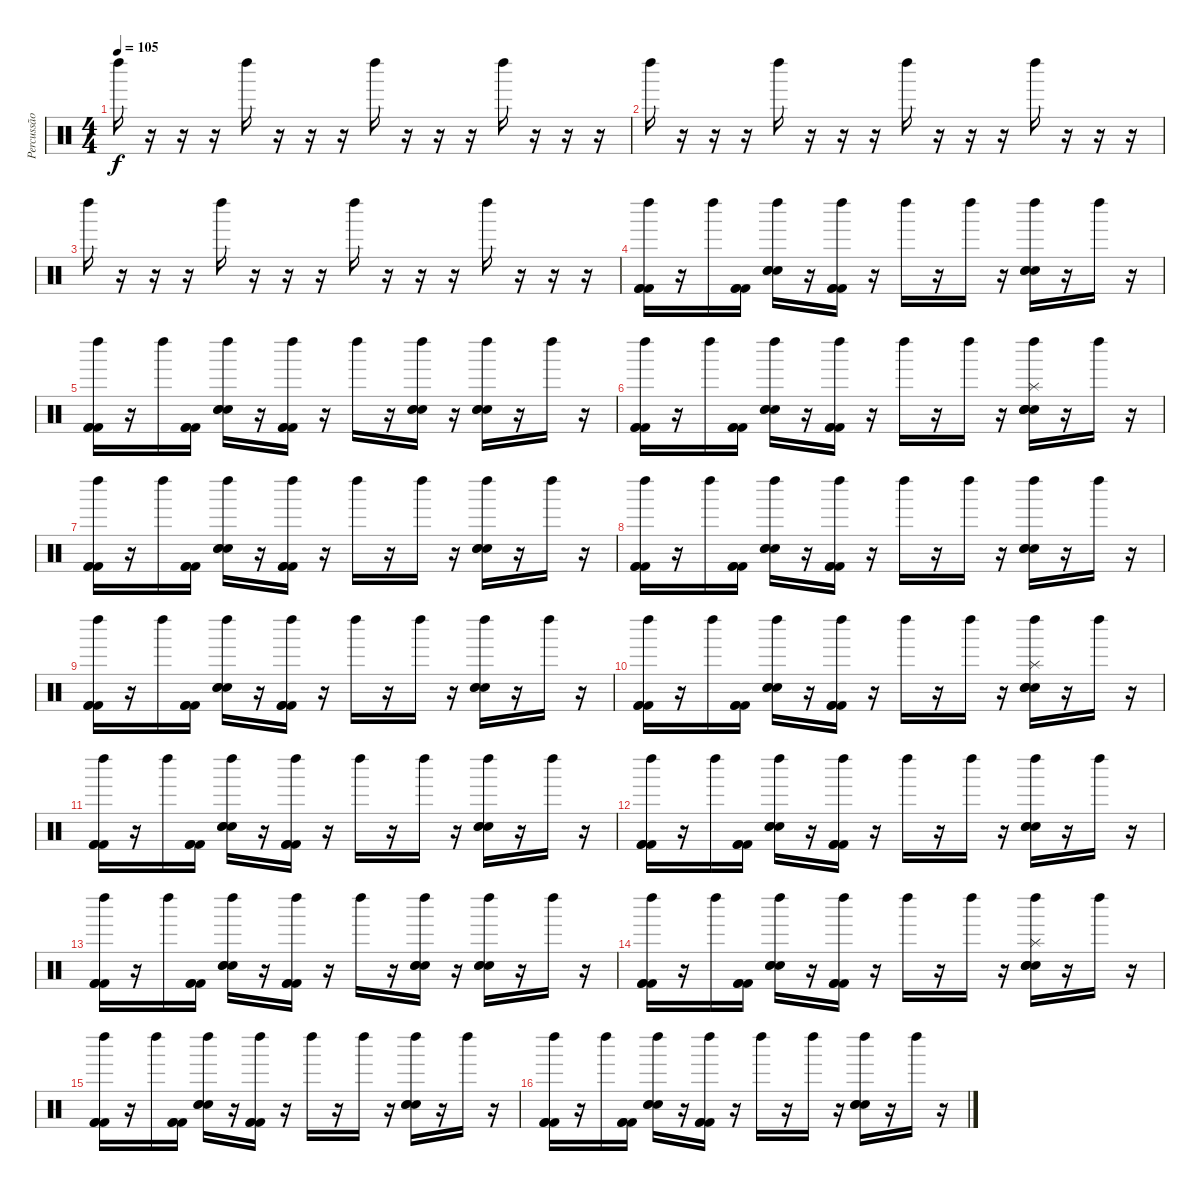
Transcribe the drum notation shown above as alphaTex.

\track ("Percussão" "Percussão") {instrument percussion}
\staff {score}
\articulation defaults
\ts (4 4)
\tempo 105
\clef neutral
\ks c "Left Maraca (hit)".16{dy f}
r.16 r.16 r.16 "Left Maraca (hit)".16 r.16 r.16 r.16 "Left Maraca (hit)".16 r.16 r.16 r.16 "Left Maraca (hit)".16 r.16 r.16 r.16 |
"Left Maraca (hit)".16 r.16 r.16 r.16 "Left Maraca (hit)".16 r.16 r.16 r.16 "Left Maraca (hit)".16 r.16 r.16 r.16 "Left Maraca (hit)".16 r.16 r.16 r.16 |
"Left Maraca (hit)".16 r.16 r.16 r.16 "Left Maraca (hit)".16 r.16 r.16 r.16 "Left Maraca (hit)".16 r.16 r.16 r.16 "Left Maraca (hit)".16 r.16 r.16 r.16 |
("Left Maraca (hit)" "Kick (hit) 2" "Kick (hit) 2" "Kick (hit) 2").16 r.16 "Left Maraca (hit)".16 ("Kick (hit) 2" "Kick (hit) 2" "Kick (hit) 2").16 ("Left Maraca (hit)" "Hand Clap (hit)" "Hand Clap (hit)" "Hand Clap (hit)").16 r.16 ("Left Maraca (hit)" "Kick (hit) 2" "Kick (hit) 2" "Kick (hit) 2").16 r.16 "Left Maraca (hit)".16 r.16 "Left Maraca (hit)".16 r.16 ("Left Maraca (hit)" "Hand Clap (hit)" "Hand Clap (hit)" "Hand Clap (hit)").16 r.16 "Left Maraca (hit)".16 r.16 |
("Left Maraca (hit)" "Kick (hit) 2" "Kick (hit) 2" "Kick (hit) 2").16 r.16 "Left Maraca (hit)".16 ("Kick (hit) 2" "Kick (hit) 2" "Kick (hit) 2").16 ("Left Maraca (hit)" "Hand Clap (hit)" "Hand Clap (hit)" "Hand Clap (hit)").16 r.16 ("Left Maraca (hit)" "Kick (hit) 2" "Kick (hit) 2" "Kick (hit) 2").16 r.16 "Left Maraca (hit)".16 r.16 ("Left Maraca (hit)" "Hand Clap (hit)" "Hand Clap (hit)" "Hand Clap (hit)").16 r.16 ("Left Maraca (hit)" "Hand Clap (hit)" "Hand Clap (hit)" "Hand Clap (hit)").16 r.16 "Left Maraca (hit)".16 r.16 |
("Left Maraca (hit)" "Kick (hit) 2" "Kick (hit) 2" "Kick (hit) 2").16 r.16 "Left Maraca (hit)".16 ("Kick (hit) 2" "Kick (hit) 2" "Kick (hit) 2").16 ("Left Maraca (hit)" "Hand Clap (hit)" "Hand Clap (hit)" "Hand Clap (hit)").16 r.16 ("Left Maraca (hit)" "Kick (hit) 2" "Kick (hit) 2" "Kick (hit) 2").16 r.16 "Left Maraca (hit)".16 r.16 "Left Maraca (hit)".16 r.16 ("Left Maraca (hit)" "Splash (hit)" "Hand Clap (hit)" "Hand Clap (hit)" "Hand Clap (hit)" "Snare (hit) 2").16 r.16 "Left Maraca (hit)".16 r.16 |
("Left Maraca (hit)" "Kick (hit) 2" "Kick (hit) 2" "Kick (hit) 2").16 r.16 "Left Maraca (hit)".16 ("Kick (hit) 2" "Kick (hit) 2" "Kick (hit) 2").16 ("Left Maraca (hit)" "Hand Clap (hit)" "Hand Clap (hit)" "Hand Clap (hit)").16 r.16 ("Left Maraca (hit)" "Kick (hit) 2" "Kick (hit) 2" "Kick (hit) 2").16 r.16 "Left Maraca (hit)".16 r.16 "Left Maraca (hit)".16 r.16 ("Left Maraca (hit)" "Hand Clap (hit)" "Hand Clap (hit)" "Hand Clap (hit)").16 r.16 "Left Maraca (hit)".16 r.16 |
("Left Maraca (hit)" "Kick (hit) 2" "Kick (hit) 2" "Kick (hit) 2").16 r.16 "Left Maraca (hit)".16 ("Kick (hit) 2" "Kick (hit) 2" "Kick (hit) 2").16 ("Left Maraca (hit)" "Hand Clap (hit)" "Hand Clap (hit)" "Hand Clap (hit)").16 r.16 ("Left Maraca (hit)" "Kick (hit) 2" "Kick (hit) 2" "Kick (hit) 2").16 r.16 "Left Maraca (hit)".16 r.16 "Left Maraca (hit)".16 r.16 ("Left Maraca (hit)" "Hand Clap (hit)" "Hand Clap (hit)" "Hand Clap (hit)").16 r.16 "Left Maraca (hit)".16 r.16 |
("Left Maraca (hit)" "Kick (hit) 2" "Kick (hit) 2" "Kick (hit) 2").16 r.16 "Left Maraca (hit)".16 ("Kick (hit) 2" "Kick (hit) 2" "Kick (hit) 2").16 ("Left Maraca (hit)" "Hand Clap (hit)" "Hand Clap (hit)" "Hand Clap (hit)").16 r.16 ("Left Maraca (hit)" "Kick (hit) 2" "Kick (hit) 2" "Kick (hit) 2").16 r.16 "Left Maraca (hit)".16 r.16 "Left Maraca (hit)".16 r.16 ("Left Maraca (hit)" "Hand Clap (hit)" "Hand Clap (hit)" "Hand Clap (hit)").16 r.16 "Left Maraca (hit)".16 r.16 |
("Left Maraca (hit)" "Kick (hit) 2" "Kick (hit) 2" "Kick (hit) 2").16 r.16 "Left Maraca (hit)".16 ("Kick (hit) 2" "Kick (hit) 2" "Kick (hit) 2").16 ("Left Maraca (hit)" "Hand Clap (hit)" "Hand Clap (hit)" "Hand Clap (hit)").16 r.16 ("Left Maraca (hit)" "Kick (hit) 2" "Kick (hit) 2" "Kick (hit) 2").16 r.16 "Left Maraca (hit)".16 r.16 "Left Maraca (hit)".16 r.16 ("Left Maraca (hit)" "Splash (hit)" "Hand Clap (hit)" "Hand Clap (hit)" "Hand Clap (hit)" "Snare (hit) 2").16 r.16 "Left Maraca (hit)".16 r.16 |
("Left Maraca (hit)" "Kick (hit) 2" "Kick (hit) 2" "Kick (hit) 2").16 r.16 "Left Maraca (hit)".16 ("Kick (hit) 2" "Kick (hit) 2" "Kick (hit) 2").16 ("Left Maraca (hit)" "Hand Clap (hit)" "Hand Clap (hit)" "Hand Clap (hit)").16 r.16 ("Left Maraca (hit)" "Kick (hit) 2" "Kick (hit) 2" "Kick (hit) 2").16 r.16 "Left Maraca (hit)".16 r.16 "Left Maraca (hit)".16 r.16 ("Left Maraca (hit)" "Hand Clap (hit)" "Hand Clap (hit)" "Hand Clap (hit)").16 r.16 "Left Maraca (hit)".16 r.16 |
("Left Maraca (hit)" "Kick (hit) 2" "Kick (hit) 2" "Kick (hit) 2").16 r.16 "Left Maraca (hit)".16 ("Kick (hit) 2" "Kick (hit) 2" "Kick (hit) 2").16 ("Left Maraca (hit)" "Hand Clap (hit)" "Hand Clap (hit)" "Hand Clap (hit)").16 r.16 ("Left Maraca (hit)" "Kick (hit) 2" "Kick (hit) 2" "Kick (hit) 2").16 r.16 "Left Maraca (hit)".16 r.16 "Left Maraca (hit)".16 r.16 ("Left Maraca (hit)" "Hand Clap (hit)" "Hand Clap (hit)" "Hand Clap (hit)").16 r.16 "Left Maraca (hit)".16 r.16 |
("Left Maraca (hit)" "Kick (hit) 2" "Kick (hit) 2" "Kick (hit) 2").16 r.16 "Left Maraca (hit)".16 ("Kick (hit) 2" "Kick (hit) 2" "Kick (hit) 2").16 ("Left Maraca (hit)" "Hand Clap (hit)" "Hand Clap (hit)" "Hand Clap (hit)").16 r.16 ("Left Maraca (hit)" "Kick (hit) 2" "Kick (hit) 2" "Kick (hit) 2").16 r.16 "Left Maraca (hit)".16 r.16 ("Left Maraca (hit)" "Hand Clap (hit)" "Hand Clap (hit)" "Hand Clap (hit)").16 r.16 ("Left Maraca (hit)" "Hand Clap (hit)" "Hand Clap (hit)" "Hand Clap (hit)").16 r.16 "Left Maraca (hit)".16 r.16 |
("Left Maraca (hit)" "Kick (hit) 2" "Kick (hit) 2" "Kick (hit) 2").16 r.16 "Left Maraca (hit)".16 ("Kick (hit) 2" "Kick (hit) 2" "Kick (hit) 2").16 ("Left Maraca (hit)" "Hand Clap (hit)" "Hand Clap (hit)" "Hand Clap (hit)").16 r.16 ("Left Maraca (hit)" "Kick (hit) 2" "Kick (hit) 2" "Kick (hit) 2").16 r.16 "Left Maraca (hit)".16 r.16 "Left Maraca (hit)".16 r.16 ("Left Maraca (hit)" "Splash (hit)" "Hand Clap (hit)" "Hand Clap (hit)" "Hand Clap (hit)" "Snare (hit) 2").16 r.16 "Left Maraca (hit)".16 r.16 |
("Left Maraca (hit)" "Kick (hit) 2" "Kick (hit) 2" "Kick (hit) 2").16 r.16 "Left Maraca (hit)".16 ("Kick (hit) 2" "Kick (hit) 2" "Kick (hit) 2").16 ("Left Maraca (hit)" "Hand Clap (hit)" "Hand Clap (hit)" "Hand Clap (hit)").16 r.16 ("Left Maraca (hit)" "Kick (hit) 2" "Kick (hit) 2" "Kick (hit) 2").16 r.16 "Left Maraca (hit)".16 r.16 "Left Maraca (hit)".16 r.16 ("Left Maraca (hit)" "Hand Clap (hit)" "Hand Clap (hit)" "Hand Clap (hit)").16 r.16 "Left Maraca (hit)".16 r.16 |
("Left Maraca (hit)" "Kick (hit) 2" "Kick (hit) 2" "Kick (hit) 2").16 r.16 "Left Maraca (hit)".16 ("Kick (hit) 2" "Kick (hit) 2" "Kick (hit) 2").16 ("Left Maraca (hit)" "Hand Clap (hit)" "Hand Clap (hit)" "Hand Clap (hit)").16 r.16 ("Left Maraca (hit)" "Kick (hit) 2" "Kick (hit) 2" "Kick (hit) 2").16 r.16 "Left Maraca (hit)".16 r.16 "Left Maraca (hit)".16 r.16 ("Left Maraca (hit)" "Hand Clap (hit)" "Hand Clap (hit)" "Hand Clap (hit)").16 r.16 "Left Maraca (hit)".16 r.16
